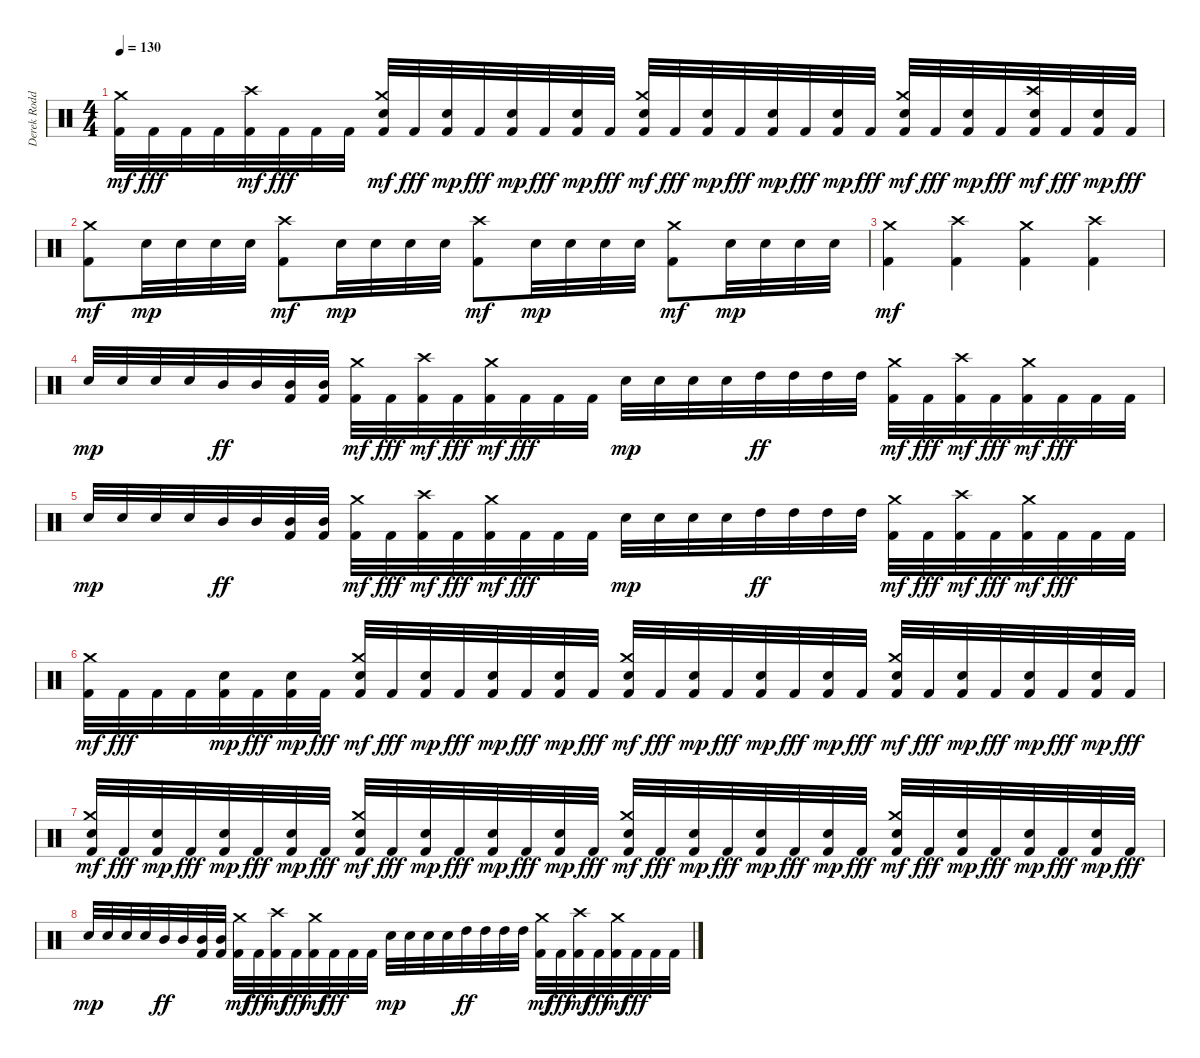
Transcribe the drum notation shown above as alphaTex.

\track ("Derek Roddy" "Derek Rodd") {instrument percussion}
\staff {score}
\articulation defaults
\ts (4 4)
\tempo 130
\clef neutral
\ks c
("Kick (hit) 2" "Crash medium (hit)").32{dy mf} "Kick (hit) 2".32{dy fff} "Kick (hit) 2".32 "Kick (hit) 2".32 ("Kick (hit) 2" "Crash high (hit)").32{dy mf} "Kick (hit) 2".32{dy fff} "Kick (hit) 2".32 "Kick (hit) 2".32 ("Kick (hit) 2" "Electric Snare (hit)" "Crash medium (hit)").32{dy mf} "Kick (hit) 2".32{dy fff} ("Kick (hit) 2" "Electric Snare (hit)").32{dy mp} "Kick (hit) 2".32{dy fff} ("Kick (hit) 2" "Electric Snare (hit)").32{dy mp} "Kick (hit) 2".32{dy fff} ("Kick (hit) 2" "Electric Snare (hit)").32{dy mp} "Kick (hit) 2".32{dy fff} ("Kick (hit) 2" "Electric Snare (hit)" "Crash medium (hit)").32{dy mf} "Kick (hit) 2".32{dy fff} ("Kick (hit) 2" "Electric Snare (hit)").32{dy mp} "Kick (hit) 2".32{dy fff} ("Kick (hit) 2" "Electric Snare (hit)").32{dy mp} "Kick (hit) 2".32{dy fff} ("Kick (hit) 2" "Electric Snare (hit)").32{dy mp} "Kick (hit) 2".32{dy fff} ("Kick (hit) 2" "Electric Snare (hit)" "Crash medium (hit)").32{dy mf} "Kick (hit) 2".32{dy fff} ("Kick (hit) 2" "Electric Snare (hit)").32{dy mp} "Kick (hit) 2".32{dy fff} ("Kick (hit) 2" "Electric Snare (hit)" "Crash high (hit)").32{dy mf} "Kick (hit) 2".32{dy fff} ("Kick (hit) 2" "Electric Snare (hit)").32{dy mp} "Kick (hit) 2".32{dy fff} |
("Kick (hit) 2" "Crash medium (hit)").8{dy mf} "Electric Snare (hit)".32{dy mp} "Electric Snare (hit)".32 "Electric Snare (hit)".32 "Electric Snare (hit)".32 ("Kick (hit) 2" "Crash high (hit)").8{dy mf} "Electric Snare (hit)".32{dy mp} "Electric Snare (hit)".32 "Electric Snare (hit)".32 "Electric Snare (hit)".32 ("Kick (hit) 2" "Crash high (hit)").8{dy mf} "Electric Snare (hit)".32{dy mp} "Electric Snare (hit)".32 "Electric Snare (hit)".32 "Electric Snare (hit)".32 ("Kick (hit) 2" "Crash medium (hit)").8{dy mf} "Electric Snare (hit)".32{dy mp} "Electric Snare (hit)".32 "Electric Snare (hit)".32 "Electric Snare (hit)".32 |
("Kick (hit) 2" "Crash medium (hit)").4{dy mf} ("Kick (hit) 2" "Crash high (hit)").4 ("Kick (hit) 2" "Crash medium (hit)").4 ("Kick (hit) 2" "Crash high (hit)").4 |
"Electric Snare (hit)".32{dy mp} "Electric Snare (hit)".32 "Electric Snare (hit)".32 "Electric Snare (hit)".32 "Mid Tom (hit)".32{dy ff} "Mid Tom (hit)".32 ("Kick (hit) 2" "Mid Tom (hit)").32 ("Kick (hit) 2" "Mid Tom (hit)").32 ("Kick (hit) 2" "Crash medium (hit)").32{dy mf} "Kick (hit) 2".32{dy fff} ("Kick (hit) 2" "Crash high (hit)").32{dy mf} "Kick (hit) 2".32{dy fff} ("Kick (hit) 2" "Crash medium (hit)").32{dy mf} "Kick (hit) 2".32{dy fff} "Kick (hit) 2".32 "Kick (hit) 2".32 "Electric Snare (hit)".32{dy mp} "Electric Snare (hit)".32 "Electric Snare (hit)".32 "Electric Snare (hit)".32 "High Tom (hit)".32{dy ff} "High Tom (hit)".32 "High Tom (hit)".32 "High Tom (hit)".32 ("Kick (hit) 2" "Crash medium (hit)").32{dy mf} "Kick (hit) 2".32{dy fff} ("Kick (hit) 2" "Crash high (hit)").32{dy mf} "Kick (hit) 2".32{dy fff} ("Kick (hit) 2" "Crash medium (hit)").32{dy mf} "Kick (hit) 2".32{dy fff} "Kick (hit) 2".32 "Kick (hit) 2".32 |
"Electric Snare (hit)".32{dy mp} "Electric Snare (hit)".32 "Electric Snare (hit)".32 "Electric Snare (hit)".32 "Mid Tom (hit)".32{dy ff} "Mid Tom (hit)".32 ("Kick (hit) 2" "Mid Tom (hit)").32 ("Kick (hit) 2" "Mid Tom (hit)").32 ("Kick (hit) 2" "Crash medium (hit)").32{dy mf} "Kick (hit) 2".32{dy fff} ("Kick (hit) 2" "Crash high (hit)").32{dy mf} "Kick (hit) 2".32{dy fff} ("Kick (hit) 2" "Crash medium (hit)").32{dy mf} "Kick (hit) 2".32{dy fff} "Kick (hit) 2".32 "Kick (hit) 2".32 "Electric Snare (hit)".32{dy mp} "Electric Snare (hit)".32 "Electric Snare (hit)".32 "Electric Snare (hit)".32 "High Tom (hit)".32{dy ff} "High Tom (hit)".32 "High Tom (hit)".32 "High Tom (hit)".32 ("Kick (hit) 2" "Crash medium (hit)").32{dy mf} "Kick (hit) 2".32{dy fff} ("Kick (hit) 2" "Crash high (hit)").32{dy mf} "Kick (hit) 2".32{dy fff} ("Kick (hit) 2" "Crash medium (hit)").32{dy mf} "Kick (hit) 2".32{dy fff} "Kick (hit) 2".32 "Kick (hit) 2".32 |
("Kick (hit) 2" "Crash medium (hit)").32{dy mf} "Kick (hit) 2".32{dy fff} "Kick (hit) 2".32 "Kick (hit) 2".32 ("Kick (hit) 2" "Electric Snare (hit)").32{dy mp} "Kick (hit) 2".32{dy fff} ("Kick (hit) 2" "Electric Snare (hit)").32{dy mp} "Kick (hit) 2".32{dy fff} ("Kick (hit) 2" "Electric Snare (hit)" "Crash medium (hit)").32{dy mf} "Kick (hit) 2".32{dy fff} ("Kick (hit) 2" "Electric Snare (hit)").32{dy mp} "Kick (hit) 2".32{dy fff} ("Kick (hit) 2" "Electric Snare (hit)").32{dy mp} "Kick (hit) 2".32{dy fff} ("Kick (hit) 2" "Electric Snare (hit)").32{dy mp} "Kick (hit) 2".32{dy fff} ("Kick (hit) 2" "Electric Snare (hit)" "Crash medium (hit)").32{dy mf} "Kick (hit) 2".32{dy fff} ("Kick (hit) 2" "Electric Snare (hit)").32{dy mp} "Kick (hit) 2".32{dy fff} ("Kick (hit) 2" "Electric Snare (hit)").32{dy mp} "Kick (hit) 2".32{dy fff} ("Kick (hit) 2" "Electric Snare (hit)").32{dy mp} "Kick (hit) 2".32{dy fff} ("Kick (hit) 2" "Electric Snare (hit)" "Crash medium (hit)").32{dy mf} "Kick (hit) 2".32{dy fff} ("Kick (hit) 2" "Electric Snare (hit)").32{dy mp} "Kick (hit) 2".32{dy fff} ("Kick (hit) 2" "Electric Snare (hit)").32{dy mp} "Kick (hit) 2".32{dy fff} ("Kick (hit) 2" "Electric Snare (hit)").32{dy mp} "Kick (hit) 2".32{dy fff} |
("Kick (hit) 2" "Electric Snare (hit)" "Crash medium (hit)").32{dy mf} "Kick (hit) 2".32{dy fff} ("Kick (hit) 2" "Electric Snare (hit)").32{dy mp} "Kick (hit) 2".32{dy fff} ("Kick (hit) 2" "Electric Snare (hit)").32{dy mp} "Kick (hit) 2".32{dy fff} ("Kick (hit) 2" "Electric Snare (hit)").32{dy mp} "Kick (hit) 2".32{dy fff} ("Kick (hit) 2" "Electric Snare (hit)" "Crash medium (hit)").32{dy mf} "Kick (hit) 2".32{dy fff} ("Kick (hit) 2" "Electric Snare (hit)").32{dy mp} "Kick (hit) 2".32{dy fff} ("Kick (hit) 2" "Electric Snare (hit)").32{dy mp} "Kick (hit) 2".32{dy fff} ("Kick (hit) 2" "Electric Snare (hit)").32{dy mp} "Kick (hit) 2".32{dy fff} ("Kick (hit) 2" "Electric Snare (hit)" "Crash medium (hit)").32{dy mf} "Kick (hit) 2".32{dy fff} ("Kick (hit) 2" "Electric Snare (hit)").32{dy mp} "Kick (hit) 2".32{dy fff} ("Kick (hit) 2" "Electric Snare (hit)").32{dy mp} "Kick (hit) 2".32{dy fff} ("Kick (hit) 2" "Electric Snare (hit)").32{dy mp} "Kick (hit) 2".32{dy fff} ("Kick (hit) 2" "Electric Snare (hit)" "Crash medium (hit)").32{dy mf} "Kick (hit) 2".32{dy fff} ("Kick (hit) 2" "Electric Snare (hit)").32{dy mp} "Kick (hit) 2".32{dy fff} ("Kick (hit) 2" "Electric Snare (hit)").32{dy mp} "Kick (hit) 2".32{dy fff} ("Kick (hit) 2" "Electric Snare (hit)").32{dy mp} "Kick (hit) 2".32{dy fff} |
"Electric Snare (hit)".32{dy mp} "Electric Snare (hit)".32 "Electric Snare (hit)".32 "Electric Snare (hit)".32 "Mid Tom (hit)".32{dy ff} "Mid Tom (hit)".32 ("Kick (hit) 2" "Mid Tom (hit)").32 ("Kick (hit) 2" "Mid Tom (hit)").32 ("Kick (hit) 2" "Crash medium (hit)").32{dy mf} "Kick (hit) 2".32{dy fff} ("Kick (hit) 2" "Crash high (hit)").32{dy mf} "Kick (hit) 2".32{dy fff} ("Kick (hit) 2" "Crash medium (hit)").32{dy mf} "Kick (hit) 2".32{dy fff} "Kick (hit) 2".32 "Kick (hit) 2".32 "Electric Snare (hit)".32{dy mp} "Electric Snare (hit)".32 "Electric Snare (hit)".32 "Electric Snare (hit)".32 "High Tom (hit)".32{dy ff} "High Tom (hit)".32 "High Tom (hit)".32 "High Tom (hit)".32 ("Kick (hit) 2" "Crash medium (hit)").32{dy mf} "Kick (hit) 2".32{dy fff} ("Kick (hit) 2" "Crash high (hit)").32{dy mf} "Kick (hit) 2".32{dy fff} ("Kick (hit) 2" "Crash medium (hit)").32{dy mf} "Kick (hit) 2".32{dy fff} "Kick (hit) 2".32 "Kick (hit) 2".32
